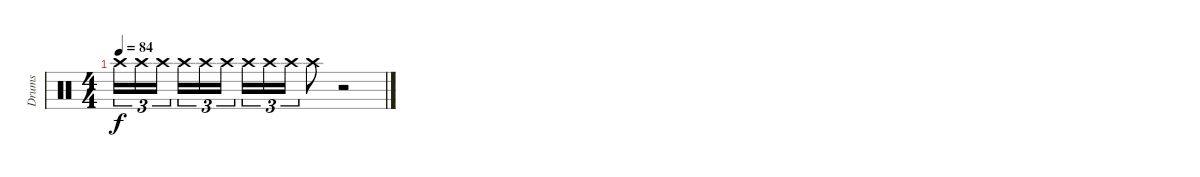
\track ("Drums" "Drums") {instrument percussion}
\staff {score}
\articulation defaults
\ts (4 4)
\tempo 84
\clef neutral
\ks c "Crash high (hit)".16{tu (3 2) dy f} "Crash high (hit)".16{tu (3 2)} "Crash high (hit)".16{tu (3 2)} "Crash high (hit)".16{tu (3 2)} "Crash high (hit)".16{tu (3 2)} "Crash high (hit)".16{tu (3 2)} "Crash high (hit)".16{tu (3 2)} "Crash high (hit)".16{tu (3 2)} "Crash high (hit)".16{tu (3 2)} "Crash high (hit)".8
r.2
